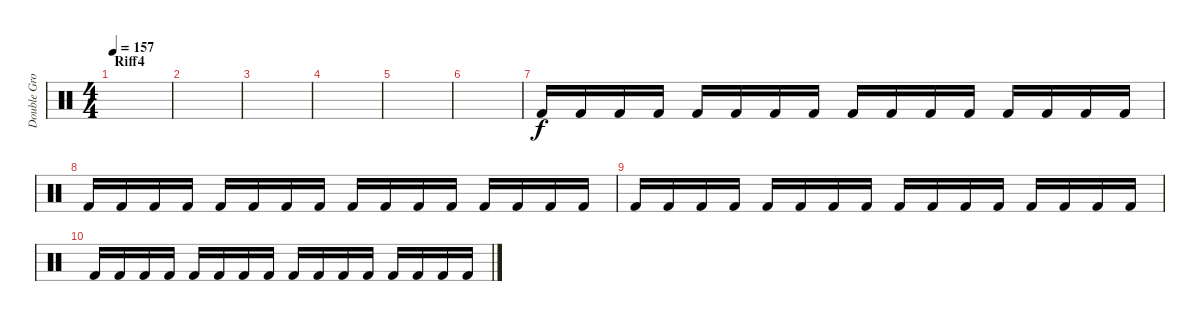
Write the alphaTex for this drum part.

\track ("Double Grosse Caisse" "Double Gro") {instrument percussion}
\staff {score}
\articulation defaults
\ts (4 4)
\section ("" "Riff4")
\tempo 157
\clef neutral
\ks c
|
|
|
|
|
|
"Kick (hit) 2".16 "Kick (hit) 2".16 "Kick (hit) 2".16 "Kick (hit) 2".16 "Kick (hit) 2".16 "Kick (hit) 2".16 "Kick (hit) 2".16 "Kick (hit) 2".16 "Kick (hit) 2".16 "Kick (hit) 2".16 "Kick (hit) 2".16 "Kick (hit) 2".16 "Kick (hit) 2".16 "Kick (hit) 2".16 "Kick (hit) 2".16 "Kick (hit) 2".16 |
"Kick (hit) 2".16 "Kick (hit) 2".16 "Kick (hit) 2".16 "Kick (hit) 2".16 "Kick (hit) 2".16 "Kick (hit) 2".16 "Kick (hit) 2".16 "Kick (hit) 2".16 "Kick (hit) 2".16 "Kick (hit) 2".16 "Kick (hit) 2".16 "Kick (hit) 2".16 "Kick (hit) 2".16 "Kick (hit) 2".16 "Kick (hit) 2".16 "Kick (hit) 2".16 |
"Kick (hit) 2".16 "Kick (hit) 2".16 "Kick (hit) 2".16 "Kick (hit) 2".16 "Kick (hit) 2".16 "Kick (hit) 2".16 "Kick (hit) 2".16 "Kick (hit) 2".16 "Kick (hit) 2".16 "Kick (hit) 2".16 "Kick (hit) 2".16 "Kick (hit) 2".16 "Kick (hit) 2".16 "Kick (hit) 2".16 "Kick (hit) 2".16 "Kick (hit) 2".16 |
"Kick (hit) 2".16 "Kick (hit) 2".16 "Kick (hit) 2".16 "Kick (hit) 2".16 "Kick (hit) 2".16 "Kick (hit) 2".16 "Kick (hit) 2".16 "Kick (hit) 2".16 "Kick (hit) 2".16 "Kick (hit) 2".16 "Kick (hit) 2".16 "Kick (hit) 2".16 "Kick (hit) 2".16 "Kick (hit) 2".16 "Kick (hit) 2".16 "Kick (hit) 2".16
